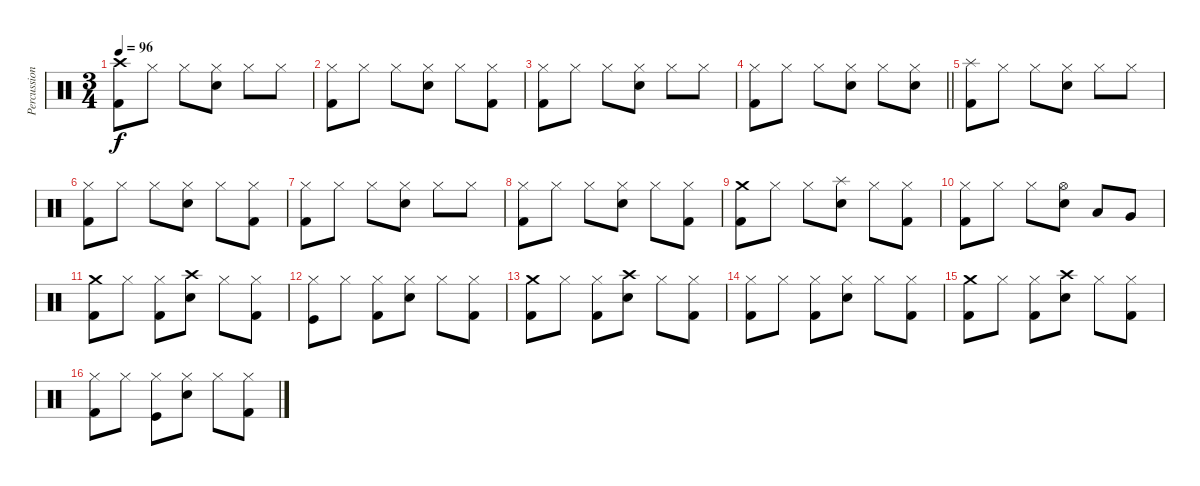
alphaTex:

\track ("Percussion" "Percussion") {instrument percussion}
\staff {score}
\articulation defaults
\ts (3 4)
\tempo 96
\clef neutral
\ks c
("Crash high (hit)" "Kick (hit) 2").8{dy f} "Hi-Hat (closed)".8 "Hi-Hat (closed)".8 ("Hi-Hat (closed)" "Snare (hit) 2").8 "Hi-Hat (closed)".8 "Hi-Hat (closed)".8 |
("Hi-Hat (closed)" "Kick (hit) 2").8 "Hi-Hat (closed)".8 "Hi-Hat (closed)".8 ("Hi-Hat (closed)" "Snare (hit) 2").8 "Hi-Hat (closed)".8 ("Hi-Hat (closed)" "Kick (hit) 2").8 |
("Hi-Hat (closed)" "Kick (hit) 2").8 "Hi-Hat (closed)".8 "Hi-Hat (closed)".8 ("Hi-Hat (closed)" "Snare (hit) 2").8 "Hi-Hat (closed)".8 "Hi-Hat (closed)".8 |
\barLineRight lightlight
("Hi-Hat (closed)" "Kick (hit) 2").8 "Hi-Hat (closed)".8 "Hi-Hat (closed)".8 ("Hi-Hat (closed)" "Snare (hit) 2").8 "Hi-Hat (closed)".8 ("Hi-Hat (closed)" "Snare (hit) 2").8 |
("Splash (hit)" "Kick (hit) 2").8 "Hi-Hat (closed)".8 "Hi-Hat (closed)".8 ("Hi-Hat (closed)" "Snare (hit) 2").8 "Hi-Hat (closed)".8 "Hi-Hat (closed)".8 |
("Hi-Hat (closed)" "Kick (hit) 2").8 "Hi-Hat (closed)".8 "Hi-Hat (closed)".8 ("Hi-Hat (closed)" "Snare (hit) 2").8 "Hi-Hat (closed)".8 ("Hi-Hat (closed)" "Kick (hit) 2").8 |
("Hi-Hat (closed)" "Kick (hit) 2").8 "Hi-Hat (closed)".8 "Hi-Hat (closed)".8 ("Hi-Hat (closed)" "Snare (hit) 2").8 "Hi-Hat (closed)".8 "Hi-Hat (closed)".8 |
("Hi-Hat (closed)" "Kick (hit) 2").8 "Hi-Hat (closed)".8 "Hi-Hat (closed)".8 ("Hi-Hat (closed)" "Snare (hit) 2").8 "Hi-Hat (closed)".8 ("Hi-Hat (closed)" "Kick (hit) 2").8 |
("Crash medium (hit)" "Kick (hit) 2").8 "Hi-Hat (closed)".8 "Hi-Hat (closed)".8 ("Splash (hit)" "Snare (hit) 2").8 "Hi-Hat (closed)".8 ("Hi-Hat (closed)" "Kick (hit) 2").8 |
("Hi-Hat (closed)" "Kick (hit) 2").8 "Hi-Hat (closed)".8 "Hi-Hat (closed)".8 ("Hi-Hat (open)" "Snare (hit) 2").8 "Low Tom (hit)".8 "Very Low Tom (hit)".8 |
("Crash medium (hit)" "Kick (hit) 2").8 "Hi-Hat (closed)".8 ("Hi-Hat (closed)" "Kick (hit) 2").8 ("Crash high (hit)" "Snare (hit) 2").8 "Hi-Hat (closed)".8 ("Hi-Hat (closed)" "Kick (hit) 2").8 |
("Hi-Hat (closed)" "Kick (hit)").8 "Hi-Hat (closed)".8 ("Hi-Hat (closed)" "Kick (hit) 2").8 ("Hi-Hat (closed)" "Snare (hit) 2").8 "Hi-Hat (closed)".8 ("Hi-Hat (closed)" "Kick (hit) 2").8 |
("Crash medium (hit)" "Kick (hit) 2").8 "Hi-Hat (closed)".8 ("Hi-Hat (closed)" "Kick (hit) 2").8 ("Crash high (hit)" "Snare (hit) 2").8 "Hi-Hat (closed)".8 ("Hi-Hat (closed)" "Kick (hit) 2").8 |
("Hi-Hat (closed)" "Kick (hit) 2").8 "Hi-Hat (closed)".8 ("Hi-Hat (closed)" "Kick (hit) 2").8 ("Hi-Hat (closed)" "Snare (hit) 2").8 "Hi-Hat (closed)".8 ("Hi-Hat (closed)" "Kick (hit) 2").8 |
("Crash medium (hit)" "Kick (hit) 2").8 "Hi-Hat (closed)".8 ("Hi-Hat (closed)" "Kick (hit) 2").8 ("Crash high (hit)" "Snare (hit) 2").8 "Hi-Hat (closed)".8 ("Hi-Hat (closed)" "Kick (hit) 2").8 |
("Hi-Hat (closed)" "Kick (hit) 2").8 "Hi-Hat (closed)".8 ("Hi-Hat (closed)" "Kick (hit)").8 ("Hi-Hat (closed)" "Snare (hit) 2").8 "Hi-Hat (closed)".8 ("Hi-Hat (closed)" "Kick (hit) 2").8
